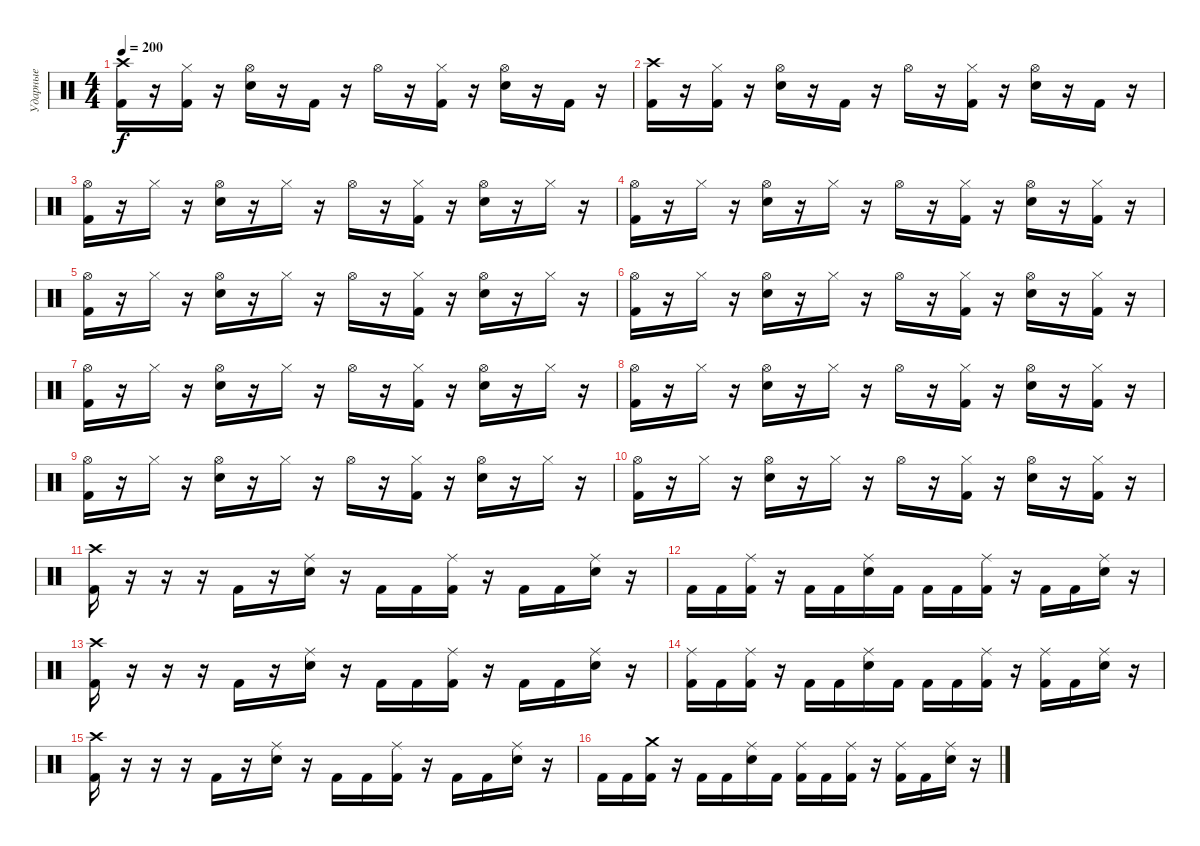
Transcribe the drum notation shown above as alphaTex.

\track ("Ударные" "Ударные") {instrument percussion}
\staff {score}
\articulation defaults
\ts (4 4)
\tempo 200
\clef neutral
\ks c
("Crash high (hit)" "Kick (hit) 2").16{dy f} r.16 ("Hi-Hat (closed)" "Kick (hit) 2").16 r.16 ("Hi-Hat (open)" "Electric Snare (hit)").16 r.16 "Kick (hit) 2".16 r.16 "Hi-Hat (open)".16 r.16 ("Hi-Hat (closed)" "Kick (hit) 2").16 r.16 ("Hi-Hat (open)" "Electric Snare (hit)").16 r.16 "Kick (hit) 2".16 r.16 |
("Crash high (hit)" "Kick (hit) 2").16 r.16 ("Hi-Hat (closed)" "Kick (hit) 2").16 r.16 ("Hi-Hat (open)" "Electric Snare (hit)").16 r.16 "Kick (hit) 2".16 r.16 "Hi-Hat (open)".16 r.16 ("Hi-Hat (closed)" "Kick (hit) 2").16 r.16 ("Hi-Hat (open)" "Electric Snare (hit)").16 r.16 "Kick (hit) 2".16 r.16 |
("Hi-Hat (open)" "Kick (hit) 2").16 r.16 "Hi-Hat (closed)".16 r.16 ("Hi-Hat (open)" "Electric Snare (hit)").16 r.16 "Hi-Hat (closed)".16 r.16 "Hi-Hat (open)".16 r.16 ("Hi-Hat (closed)" "Kick (hit) 2").16 r.16 ("Hi-Hat (open)" "Electric Snare (hit)").16 r.16 "Hi-Hat (closed)".16 r.16 |
("Hi-Hat (open)" "Kick (hit) 2").16 r.16 "Hi-Hat (closed)".16 r.16 ("Hi-Hat (open)" "Electric Snare (hit)").16 r.16 "Hi-Hat (closed)".16 r.16 "Hi-Hat (open)".16 r.16 ("Hi-Hat (closed)" "Kick (hit) 2").16 r.16 ("Hi-Hat (open)" "Electric Snare (hit)").16 r.16 ("Hi-Hat (closed)" "Kick (hit) 2").16 r.16 |
("Hi-Hat (open)" "Kick (hit) 2").16 r.16 "Hi-Hat (closed)".16 r.16 ("Hi-Hat (open)" "Electric Snare (hit)").16 r.16 "Hi-Hat (closed)".16 r.16 "Hi-Hat (open)".16 r.16 ("Hi-Hat (closed)" "Kick (hit) 2").16 r.16 ("Hi-Hat (open)" "Electric Snare (hit)").16 r.16 "Hi-Hat (closed)".16 r.16 |
("Hi-Hat (open)" "Kick (hit) 2").16 r.16 "Hi-Hat (closed)".16 r.16 ("Hi-Hat (open)" "Electric Snare (hit)").16 r.16 "Hi-Hat (closed)".16 r.16 "Hi-Hat (open)".16 r.16 ("Hi-Hat (closed)" "Kick (hit) 2").16 r.16 ("Hi-Hat (open)" "Electric Snare (hit)").16 r.16 ("Hi-Hat (closed)" "Kick (hit) 2").16 r.16 |
("Hi-Hat (open)" "Kick (hit) 2").16 r.16 "Hi-Hat (closed)".16 r.16 ("Hi-Hat (open)" "Electric Snare (hit)").16 r.16 "Hi-Hat (closed)".16 r.16 "Hi-Hat (open)".16 r.16 ("Hi-Hat (closed)" "Kick (hit) 2").16 r.16 ("Hi-Hat (open)" "Electric Snare (hit)").16 r.16 "Hi-Hat (closed)".16 r.16 |
("Hi-Hat (open)" "Kick (hit) 2").16 r.16 "Hi-Hat (closed)".16 r.16 ("Hi-Hat (open)" "Electric Snare (hit)").16 r.16 "Hi-Hat (closed)".16 r.16 "Hi-Hat (open)".16 r.16 ("Hi-Hat (closed)" "Kick (hit) 2").16 r.16 ("Hi-Hat (open)" "Electric Snare (hit)").16 r.16 ("Hi-Hat (closed)" "Kick (hit) 2").16 r.16 |
("Hi-Hat (open)" "Kick (hit) 2").16 r.16 "Hi-Hat (closed)".16 r.16 ("Hi-Hat (open)" "Electric Snare (hit)").16 r.16 "Hi-Hat (closed)".16 r.16 "Hi-Hat (open)".16 r.16 ("Hi-Hat (closed)" "Kick (hit) 2").16 r.16 ("Hi-Hat (open)" "Electric Snare (hit)").16 r.16 "Hi-Hat (closed)".16 r.16 |
("Hi-Hat (open)" "Kick (hit) 2").16 r.16 "Hi-Hat (closed)".16 r.16 ("Hi-Hat (open)" "Electric Snare (hit)").16 r.16 "Hi-Hat (closed)".16 r.16 "Hi-Hat (open)".16 r.16 ("Hi-Hat (closed)" "Kick (hit) 2").16 r.16 ("Hi-Hat (open)" "Electric Snare (hit)").16 r.16 ("Hi-Hat (closed)" "Kick (hit) 2").16 r.16 |
("Crash high (hit)" "Kick (hit) 2").16 r.16 r.16 r.16 "Kick (hit) 2".16 r.16 ("Ride (middle)" "Electric Snare (hit)").16 r.16 "Kick (hit) 2".16 "Kick (hit) 2".16 ("Ride (middle)" "Kick (hit) 2").16 r.16 "Kick (hit) 2".16 "Kick (hit) 2".16 ("Ride (middle)" "Electric Snare (hit)").16 r.16 |
"Kick (hit) 2".16 "Kick (hit) 2".16 ("Ride (middle)" "Kick (hit) 2").16 r.16 "Kick (hit) 2".16 "Kick (hit) 2".16 ("Ride (middle)" "Electric Snare (hit)").16 "Kick (hit) 2".16 "Kick (hit) 2".16 "Kick (hit) 2".16 ("Ride (middle)" "Kick (hit) 2").16 r.16 "Kick (hit) 2".16 "Kick (hit) 2".16 ("Ride (middle)" "Electric Snare (hit)").16 r.16 |
("Crash high (hit)" "Kick (hit) 2").16 r.16 r.16 r.16 "Kick (hit) 2".16 r.16 ("Ride (middle)" "Electric Snare (hit)").16 r.16 "Kick (hit) 2".16 "Kick (hit) 2".16 ("Ride (middle)" "Kick (hit) 2").16 r.16 "Kick (hit) 2".16 "Kick (hit) 2".16 ("Ride (middle)" "Electric Snare (hit)").16 r.16 |
("Ride (middle)" "Kick (hit) 2").16 "Kick (hit) 2".16 ("Ride (middle)" "Kick (hit) 2").16 r.16 "Kick (hit) 2".16 "Kick (hit) 2".16 ("Ride (middle)" "Electric Snare (hit)").16 "Kick (hit) 2".16 "Kick (hit) 2".16 "Kick (hit) 2".16 ("Ride (middle)" "Kick (hit) 2").16 r.16 ("Ride (middle)" "Kick (hit) 2").16 "Kick (hit) 2".16 ("Ride (middle)" "Electric Snare (hit)").16 r.16 |
("Crash high (hit)" "Kick (hit) 2").16 r.16 r.16 r.16 "Kick (hit) 2".16 r.16 ("Ride (middle)" "Electric Snare (hit)").16 r.16 "Kick (hit) 2".16 "Kick (hit) 2".16 ("Ride (middle)" "Kick (hit) 2").16 r.16 "Kick (hit) 2".16 "Kick (hit) 2".16 ("Ride (middle)" "Electric Snare (hit)").16 r.16 |
"Kick (hit) 2".16 "Kick (hit) 2".16 ("Crash medium (hit)" "Kick (hit) 2").16 r.16 "Kick (hit) 2".16 "Kick (hit) 2".16 ("Ride (middle)" "Electric Snare (hit)").16 "Kick (hit) 2".16 ("Ride (middle)" "Kick (hit) 2").16 "Kick (hit) 2".16 ("Ride (middle)" "Kick (hit) 2").16 r.16 ("Ride (middle)" "Kick (hit) 2").16 "Kick (hit) 2".16 ("Ride (middle)" "Electric Snare (hit)").16 r.16
